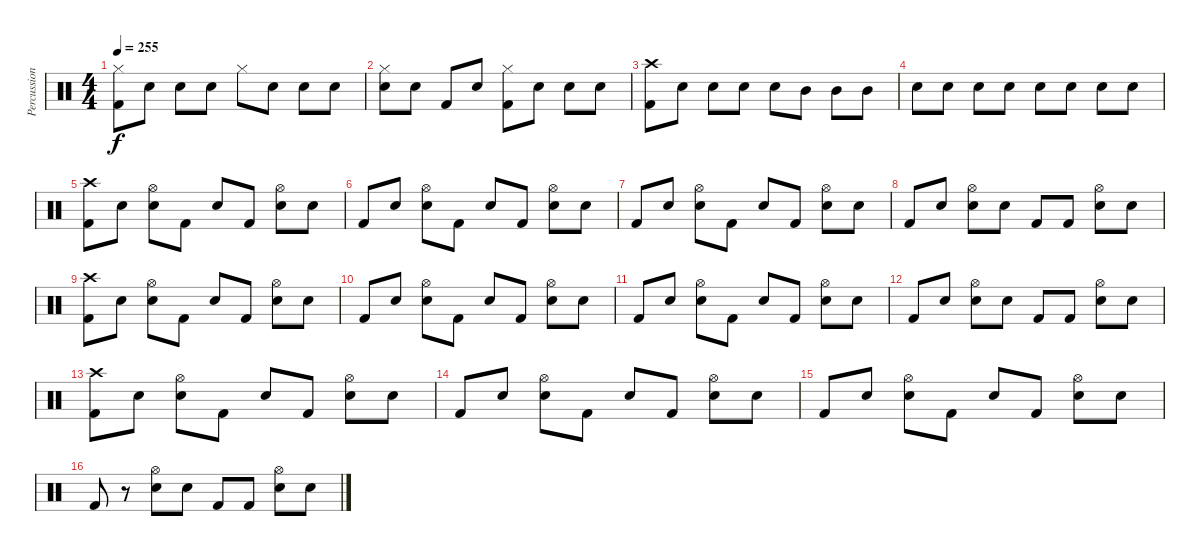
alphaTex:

\track ("Percussion" "Percussion") {instrument percussion}
\staff {score}
\articulation defaults
\ts (4 4)
\tempo 255
\clef neutral
\ks c
("Kick (hit) 2" "Hi-Hat (closed)").8{dy f} "Snare (hit)".8 "Snare (hit)".8 "Snare (hit)".8 "Hi-Hat (closed)".8 "Snare (hit)".8 "Snare (hit)".8 "Snare (hit)".8 |
("Snare (hit) 2" "Hi-Hat (closed)").8 "Snare (hit)".8 "Kick (hit) 2".8 "Snare (hit)".8 ("Kick (hit) 2" "Hi-Hat (closed)").8 "Snare (hit)".8 "Snare (hit)".8 "Snare (hit)".8 |
("Kick (hit) 2" "Crash high (hit)").8 "Snare (hit) 2".8 "Snare (hit) 2".8 "Snare (hit) 2".8 "Snare (hit) 2".8 "Mid Tom (hit)".8 "Mid Tom (hit)".8 "Mid Tom (hit)".8 |
"Snare (hit) 2".8 "Snare (hit) 2".8 "Snare (hit) 2".8 "Snare (hit) 2".8 "Snare (hit) 2".8 "Snare (hit) 2".8 "Snare (hit) 2".8 "Snare (hit) 2".8 |
("Kick (hit) 2" "Crash high (hit)").8 "Snare (hit)".8 ("Snare (hit) 2" "Hi-Hat (open)").8 "Kick (hit) 2".8 "Snare (hit)".8 "Kick (hit) 2".8 ("Snare (hit) 2" "Hi-Hat (open)").8 "Snare (hit)".8 |
"Kick (hit) 2".8 "Snare (hit)".8 ("Snare (hit) 2" "Hi-Hat (open)").8 "Kick (hit) 2".8 "Snare (hit)".8 "Kick (hit) 2".8 ("Snare (hit) 2" "Hi-Hat (open)").8 "Snare (hit)".8 |
"Kick (hit) 2".8 "Snare (hit)".8 ("Snare (hit) 2" "Hi-Hat (open)").8 "Kick (hit) 2".8 "Snare (hit)".8 "Kick (hit) 2".8 ("Snare (hit) 2" "Hi-Hat (open)").8 "Snare (hit)".8 |
"Kick (hit) 2".8 "Snare (hit)".8 ("Snare (hit) 2" "Hi-Hat (open)").8 "Snare (hit)".8 "Kick (hit) 2".8 "Kick (hit) 2".8 ("Snare (hit) 2" "Hi-Hat (open)").8 "Snare (hit)".8 |
("Kick (hit) 2" "Crash high (hit)").8 "Snare (hit)".8 ("Snare (hit) 2" "Hi-Hat (open)").8 "Kick (hit) 2".8 "Snare (hit)".8 "Kick (hit) 2".8 ("Snare (hit) 2" "Hi-Hat (open)").8 "Snare (hit)".8 |
"Kick (hit) 2".8 "Snare (hit)".8 ("Snare (hit) 2" "Hi-Hat (open)").8 "Kick (hit) 2".8 "Snare (hit)".8 "Kick (hit) 2".8 ("Snare (hit) 2" "Hi-Hat (open)").8 "Snare (hit)".8 |
"Kick (hit) 2".8 "Snare (hit)".8 ("Snare (hit) 2" "Hi-Hat (open)").8 "Kick (hit) 2".8 "Snare (hit)".8 "Kick (hit) 2".8 ("Snare (hit) 2" "Hi-Hat (open)").8 "Snare (hit)".8 |
"Kick (hit) 2".8 "Snare (hit)".8 ("Snare (hit) 2" "Hi-Hat (open)").8 "Snare (hit)".8 "Kick (hit) 2".8 "Kick (hit) 2".8 ("Snare (hit) 2" "Hi-Hat (open)").8 "Snare (hit)".8 |
("Kick (hit) 2" "Crash high (hit)").8 "Snare (hit)".8 ("Snare (hit) 2" "Hi-Hat (open)").8 "Kick (hit) 2".8 "Snare (hit)".8 "Kick (hit) 2".8 ("Snare (hit) 2" "Hi-Hat (open)").8 "Snare (hit)".8 |
"Kick (hit) 2".8 "Snare (hit)".8 ("Snare (hit) 2" "Hi-Hat (open)").8 "Kick (hit) 2".8 "Snare (hit)".8 "Kick (hit) 2".8 ("Snare (hit) 2" "Hi-Hat (open)").8 "Snare (hit)".8 |
"Kick (hit) 2".8 "Snare (hit)".8 ("Snare (hit) 2" "Hi-Hat (open)").8 "Kick (hit) 2".8 "Snare (hit)".8 "Kick (hit) 2".8 ("Snare (hit) 2" "Hi-Hat (open)").8 "Snare (hit)".8 |
"Kick (hit) 2".8 r.8 ("Snare (hit) 2" "Hi-Hat (open)").8 "Snare (hit)".8 "Kick (hit) 2".8 "Kick (hit) 2".8 ("Snare (hit) 2" "Hi-Hat (open)").8 "Snare (hit)".8
